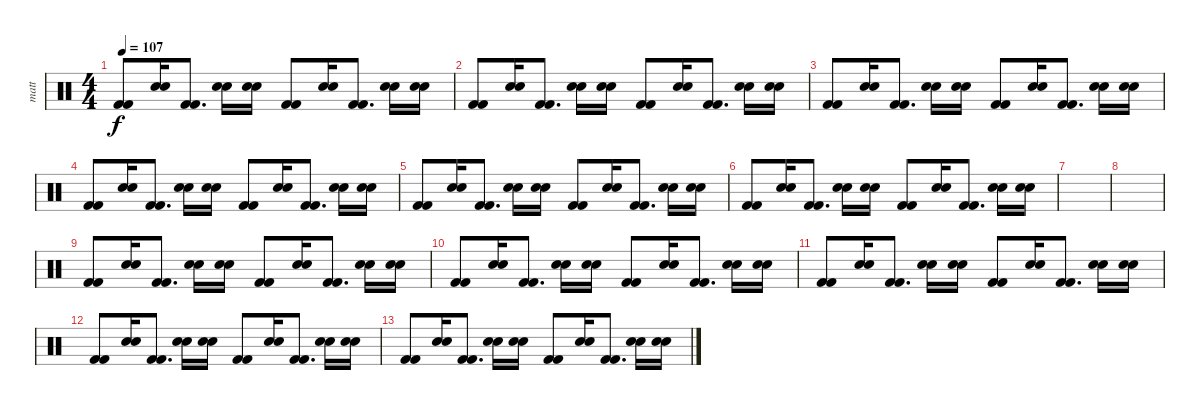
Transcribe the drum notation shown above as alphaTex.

\track ("matt" "matt") {instrument percussion}
\staff {score}
\articulation defaults
\ts (4 4)
\tempo 107
\clef neutral
\ks c
("Kick (hit) 2" "Kick (hit) 2").8{dy f} ("Snare (hit) 2" "Snare (hit) 2").16 ("Kick (hit) 2" "Kick (hit) 2").8{d} ("Snare (hit) 2" "Snare (hit) 2").16 ("Snare (hit) 2" "Snare (hit) 2").16 ("Kick (hit) 2" "Kick (hit) 2").8 ("Snare (hit) 2" "Snare (hit) 2").16 ("Kick (hit) 2" "Kick (hit) 2").8{d} ("Snare (hit) 2" "Snare (hit) 2").16 ("Snare (hit) 2" "Snare (hit) 2").16 |
("Kick (hit) 2" "Kick (hit) 2").8 ("Snare (hit) 2" "Snare (hit) 2").16 ("Kick (hit) 2" "Kick (hit) 2").8{d} ("Snare (hit) 2" "Snare (hit) 2").16 ("Snare (hit) 2" "Snare (hit) 2").16 ("Kick (hit) 2" "Kick (hit) 2").8 ("Snare (hit) 2" "Snare (hit) 2").16 ("Kick (hit) 2" "Kick (hit) 2").8{d} ("Snare (hit) 2" "Snare (hit) 2").16 ("Snare (hit) 2" "Snare (hit) 2").16 |
("Kick (hit) 2" "Kick (hit) 2").8 ("Snare (hit) 2" "Snare (hit) 2").16 ("Kick (hit) 2" "Kick (hit) 2").8{d} ("Snare (hit) 2" "Snare (hit) 2").16 ("Snare (hit) 2" "Snare (hit) 2").16 ("Kick (hit) 2" "Kick (hit) 2").8 ("Snare (hit) 2" "Snare (hit) 2").16 ("Kick (hit) 2" "Kick (hit) 2").8{d} ("Snare (hit) 2" "Snare (hit) 2").16 ("Snare (hit) 2" "Snare (hit) 2").16 |
("Kick (hit) 2" "Kick (hit) 2").8 ("Snare (hit) 2" "Snare (hit) 2").16 ("Kick (hit) 2" "Kick (hit) 2").8{d} ("Snare (hit) 2" "Snare (hit) 2").16 ("Snare (hit) 2" "Snare (hit) 2").16 ("Kick (hit) 2" "Kick (hit) 2").8 ("Snare (hit) 2" "Snare (hit) 2").16 ("Kick (hit) 2" "Kick (hit) 2").8{d} ("Snare (hit) 2" "Snare (hit) 2").16 ("Snare (hit) 2" "Snare (hit) 2").16 |
("Kick (hit) 2" "Kick (hit) 2").8 ("Snare (hit) 2" "Snare (hit) 2").16 ("Kick (hit) 2" "Kick (hit) 2").8{d} ("Snare (hit) 2" "Snare (hit) 2").16 ("Snare (hit) 2" "Snare (hit) 2").16 ("Kick (hit) 2" "Kick (hit) 2").8 ("Snare (hit) 2" "Snare (hit) 2").16 ("Kick (hit) 2" "Kick (hit) 2").8{d} ("Snare (hit) 2" "Snare (hit) 2").16 ("Snare (hit) 2" "Snare (hit) 2").16 |
("Kick (hit) 2" "Kick (hit) 2").8 ("Snare (hit) 2" "Snare (hit) 2").16 ("Kick (hit) 2" "Kick (hit) 2").8{d} ("Snare (hit) 2" "Snare (hit) 2").16 ("Snare (hit) 2" "Snare (hit) 2").16 ("Kick (hit) 2" "Kick (hit) 2").8 ("Snare (hit) 2" "Snare (hit) 2").16 ("Kick (hit) 2" "Kick (hit) 2").8{d} ("Snare (hit) 2" "Snare (hit) 2").16 ("Snare (hit) 2" "Snare (hit) 2").16 |
|
|
("Kick (hit) 2" "Kick (hit) 2").8 ("Snare (hit) 2" "Snare (hit) 2").16 ("Kick (hit) 2" "Kick (hit) 2").8{d} ("Snare (hit) 2" "Snare (hit) 2").16 ("Snare (hit) 2" "Snare (hit) 2").16 ("Kick (hit) 2" "Kick (hit) 2").8 ("Snare (hit) 2" "Snare (hit) 2").16 ("Kick (hit) 2" "Kick (hit) 2").8{d} ("Snare (hit) 2" "Snare (hit) 2").16 ("Snare (hit) 2" "Snare (hit) 2").16 |
("Kick (hit) 2" "Kick (hit) 2").8 ("Snare (hit) 2" "Snare (hit) 2").16 ("Kick (hit) 2" "Kick (hit) 2").8{d} ("Snare (hit) 2" "Snare (hit) 2").16 ("Snare (hit) 2" "Snare (hit) 2").16 ("Kick (hit) 2" "Kick (hit) 2").8 ("Snare (hit) 2" "Snare (hit) 2").16 ("Kick (hit) 2" "Kick (hit) 2").8{d} ("Snare (hit) 2" "Snare (hit) 2").16 ("Snare (hit) 2" "Snare (hit) 2").16 |
("Kick (hit) 2" "Kick (hit) 2").8 ("Snare (hit) 2" "Snare (hit) 2").16 ("Kick (hit) 2" "Kick (hit) 2").8{d} ("Snare (hit) 2" "Snare (hit) 2").16 ("Snare (hit) 2" "Snare (hit) 2").16 ("Kick (hit) 2" "Kick (hit) 2").8 ("Snare (hit) 2" "Snare (hit) 2").16 ("Kick (hit) 2" "Kick (hit) 2").8{d} ("Snare (hit) 2" "Snare (hit) 2").16 ("Snare (hit) 2" "Snare (hit) 2").16 |
("Kick (hit) 2" "Kick (hit) 2").8 ("Snare (hit) 2" "Snare (hit) 2").16 ("Kick (hit) 2" "Kick (hit) 2").8{d} ("Snare (hit) 2" "Snare (hit) 2").16 ("Snare (hit) 2" "Snare (hit) 2").16 ("Kick (hit) 2" "Kick (hit) 2").8 ("Snare (hit) 2" "Snare (hit) 2").16 ("Kick (hit) 2" "Kick (hit) 2").8{d} ("Snare (hit) 2" "Snare (hit) 2").16 ("Snare (hit) 2" "Snare (hit) 2").16 |
("Kick (hit) 2" "Kick (hit) 2").8 ("Snare (hit) 2" "Snare (hit) 2").16 ("Kick (hit) 2" "Kick (hit) 2").8{d} ("Snare (hit) 2" "Snare (hit) 2").16 ("Snare (hit) 2" "Snare (hit) 2").16 ("Kick (hit) 2" "Kick (hit) 2").8 ("Snare (hit) 2" "Snare (hit) 2").16 ("Kick (hit) 2" "Kick (hit) 2").8{d} ("Snare (hit) 2" "Snare (hit) 2").16 ("Snare (hit) 2" "Snare (hit) 2").16
